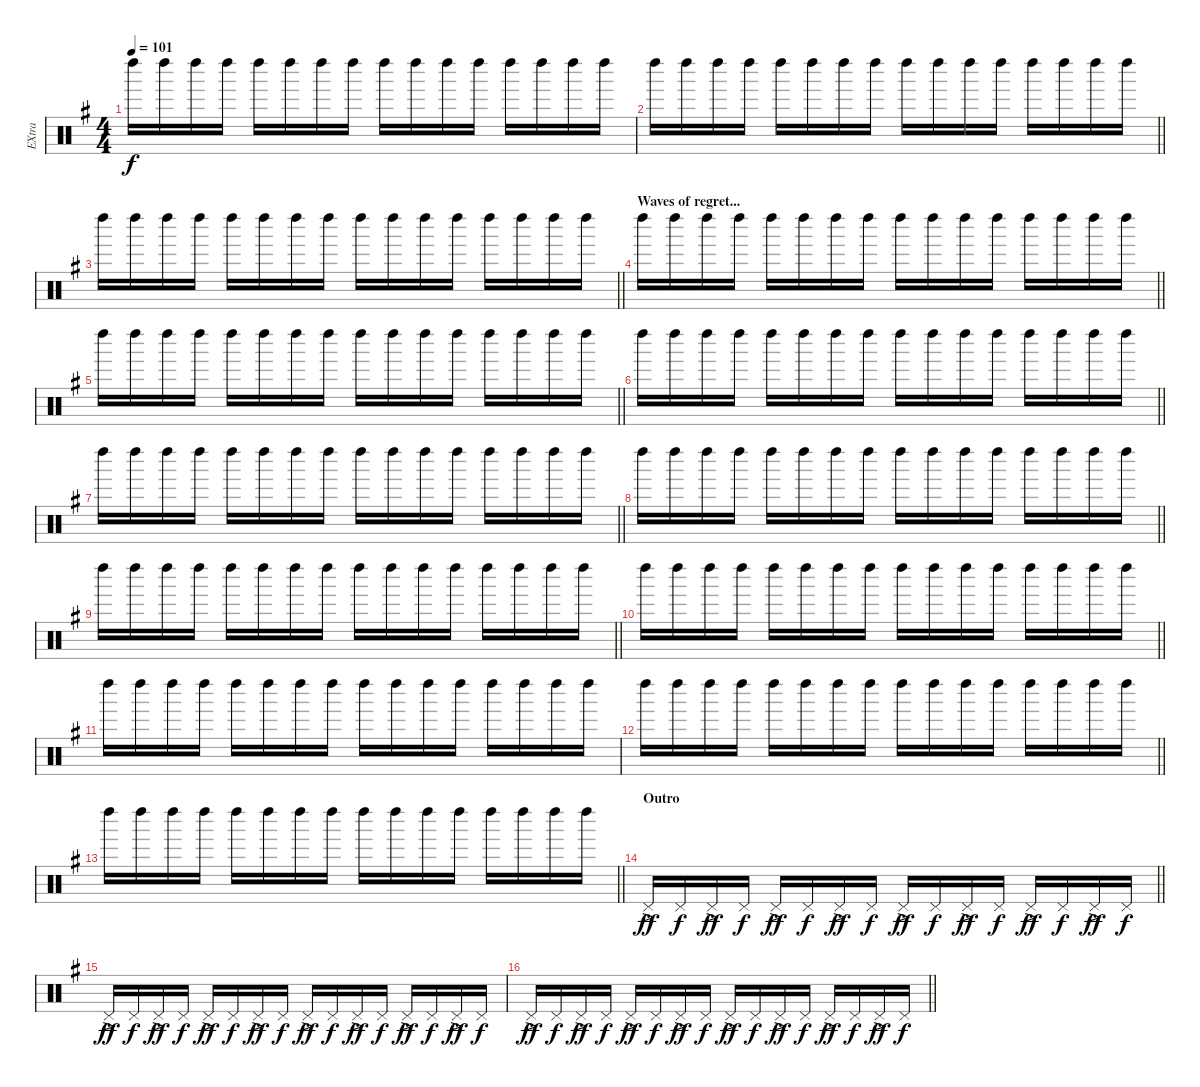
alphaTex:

\track ("EXtra" "EXtra") {instrument percussion}
\staff {score}
\articulation defaults
\ts (4 4)
\tempo 101
\clef neutral
\ks g "Left Maraca (hit)".16{dy f} "Left Maraca (hit)".16 "Left Maraca (hit)".16 "Left Maraca (hit)".16 "Left Maraca (hit)".16 "Left Maraca (hit)".16 "Left Maraca (hit)".16 "Left Maraca (hit)".16 "Left Maraca (hit)".16 "Left Maraca (hit)".16 "Left Maraca (hit)".16 "Left Maraca (hit)".16 "Left Maraca (hit)".16 "Left Maraca (hit)".16 "Left Maraca (hit)".16 "Left Maraca (hit)".16
|
\barLineRight lightlight "Left Maraca (hit)".16 "Left Maraca (hit)".16 "Left Maraca (hit)".16 "Left Maraca (hit)".16 "Left Maraca (hit)".16 "Left Maraca (hit)".16 "Left Maraca (hit)".16 "Left Maraca (hit)".16 "Left Maraca (hit)".16 "Left Maraca (hit)".16 "Left Maraca (hit)".16 "Left Maraca (hit)".16 "Left Maraca (hit)".16 "Left Maraca (hit)".16 "Left Maraca (hit)".16 "Left Maraca (hit)".16
|
\barLineRight lightlight "Left Maraca (hit)".16 "Left Maraca (hit)".16 "Left Maraca (hit)".16 "Left Maraca (hit)".16 "Left Maraca (hit)".16 "Left Maraca (hit)".16 "Left Maraca (hit)".16 "Left Maraca (hit)".16 "Left Maraca (hit)".16 "Left Maraca (hit)".16 "Left Maraca (hit)".16 "Left Maraca (hit)".16 "Left Maraca (hit)".16 "Left Maraca (hit)".16 "Left Maraca (hit)".16 "Left Maraca (hit)".16
|
\section ("" "Waves of regret...")
\barLineRight lightlight "Left Maraca (hit)".16 "Left Maraca (hit)".16 "Left Maraca (hit)".16 "Left Maraca (hit)".16 "Left Maraca (hit)".16 "Left Maraca (hit)".16 "Left Maraca (hit)".16 "Left Maraca (hit)".16 "Left Maraca (hit)".16 "Left Maraca (hit)".16 "Left Maraca (hit)".16 "Left Maraca (hit)".16 "Left Maraca (hit)".16 "Left Maraca (hit)".16 "Left Maraca (hit)".16 "Left Maraca (hit)".16
|
\barLineRight lightlight "Left Maraca (hit)".16 "Left Maraca (hit)".16 "Left Maraca (hit)".16 "Left Maraca (hit)".16 "Left Maraca (hit)".16 "Left Maraca (hit)".16 "Left Maraca (hit)".16 "Left Maraca (hit)".16 "Left Maraca (hit)".16 "Left Maraca (hit)".16 "Left Maraca (hit)".16 "Left Maraca (hit)".16 "Left Maraca (hit)".16 "Left Maraca (hit)".16 "Left Maraca (hit)".16 "Left Maraca (hit)".16
|
\barLineRight lightlight "Left Maraca (hit)".16 "Left Maraca (hit)".16 "Left Maraca (hit)".16 "Left Maraca (hit)".16 "Left Maraca (hit)".16 "Left Maraca (hit)".16 "Left Maraca (hit)".16 "Left Maraca (hit)".16 "Left Maraca (hit)".16 "Left Maraca (hit)".16 "Left Maraca (hit)".16 "Left Maraca (hit)".16 "Left Maraca (hit)".16 "Left Maraca (hit)".16 "Left Maraca (hit)".16 "Left Maraca (hit)".16
|
\section ("" "")
\barLineRight lightlight "Left Maraca (hit)".16 "Left Maraca (hit)".16 "Left Maraca (hit)".16 "Left Maraca (hit)".16 "Left Maraca (hit)".16 "Left Maraca (hit)".16 "Left Maraca (hit)".16 "Left Maraca (hit)".16 "Left Maraca (hit)".16 "Left Maraca (hit)".16 "Left Maraca (hit)".16 "Left Maraca (hit)".16 "Left Maraca (hit)".16 "Left Maraca (hit)".16 "Left Maraca (hit)".16 "Left Maraca (hit)".16
|
\barLineRight lightlight "Left Maraca (hit)".16 "Left Maraca (hit)".16 "Left Maraca (hit)".16 "Left Maraca (hit)".16 "Left Maraca (hit)".16 "Left Maraca (hit)".16 "Left Maraca (hit)".16 "Left Maraca (hit)".16 "Left Maraca (hit)".16 "Left Maraca (hit)".16 "Left Maraca (hit)".16 "Left Maraca (hit)".16 "Left Maraca (hit)".16 "Left Maraca (hit)".16 "Left Maraca (hit)".16 "Left Maraca (hit)".16
|
\barLineRight lightlight "Left Maraca (hit)".16 "Left Maraca (hit)".16 "Left Maraca (hit)".16 "Left Maraca (hit)".16 "Left Maraca (hit)".16 "Left Maraca (hit)".16 "Left Maraca (hit)".16 "Left Maraca (hit)".16 "Left Maraca (hit)".16 "Left Maraca (hit)".16 "Left Maraca (hit)".16 "Left Maraca (hit)".16 "Left Maraca (hit)".16 "Left Maraca (hit)".16 "Left Maraca (hit)".16 "Left Maraca (hit)".16
|
\barLineRight lightlight "Left Maraca (hit)".16 "Left Maraca (hit)".16 "Left Maraca (hit)".16 "Left Maraca (hit)".16 "Left Maraca (hit)".16 "Left Maraca (hit)".16 "Left Maraca (hit)".16 "Left Maraca (hit)".16 "Left Maraca (hit)".16 "Left Maraca (hit)".16 "Left Maraca (hit)".16 "Left Maraca (hit)".16 "Left Maraca (hit)".16 "Left Maraca (hit)".16 "Left Maraca (hit)".16 "Left Maraca (hit)".16
|
"Left Maraca (hit)".16 "Left Maraca (hit)".16 "Left Maraca (hit)".16 "Left Maraca (hit)".16 "Left Maraca (hit)".16 "Left Maraca (hit)".16 "Left Maraca (hit)".16 "Left Maraca (hit)".16 "Left Maraca (hit)".16 "Left Maraca (hit)".16 "Left Maraca (hit)".16 "Left Maraca (hit)".16 "Left Maraca (hit)".16 "Left Maraca (hit)".16 "Left Maraca (hit)".16 "Left Maraca (hit)".16 |
\barLineRight lightlight "Left Maraca (hit)".16 "Left Maraca (hit)".16 "Left Maraca (hit)".16 "Left Maraca (hit)".16 "Left Maraca (hit)".16 "Left Maraca (hit)".16 "Left Maraca (hit)".16 "Left Maraca (hit)".16 "Left Maraca (hit)".16 "Left Maraca (hit)".16 "Left Maraca (hit)".16 "Left Maraca (hit)".16 "Left Maraca (hit)".16 "Left Maraca (hit)".16 "Left Maraca (hit)".16 "Left Maraca (hit)".16
|
\barLineRight lightlight "Left Maraca (hit)".16 "Left Maraca (hit)".16 "Left Maraca (hit)".16 "Left Maraca (hit)".16 "Left Maraca (hit)".16 "Left Maraca (hit)".16 "Left Maraca (hit)".16 "Left Maraca (hit)".16 "Left Maraca (hit)".16 "Left Maraca (hit)".16 "Left Maraca (hit)".16 "Left Maraca (hit)".16 "Left Maraca (hit)".16 "Left Maraca (hit)".16 "Left Maraca (hit)".16 "Left Maraca (hit)".16
|
\section ("" "Outro")
\barLineRight lightlight "Pedal Hi-Hat (hit)"{ac}.16{dy ff} "Pedal Hi-Hat (hit)".16{dy f} "Pedal Hi-Hat (hit)"{ac}.16{dy ff} "Pedal Hi-Hat (hit)".16{dy f} "Pedal Hi-Hat (hit)"{ac}.16{dy ff} "Pedal Hi-Hat (hit)".16{dy f} "Pedal Hi-Hat (hit)"{ac}.16{dy ff} "Pedal Hi-Hat (hit)".16{dy f} "Pedal Hi-Hat (hit)"{ac}.16{dy ff} "Pedal Hi-Hat (hit)".16{dy f} "Pedal Hi-Hat (hit)"{ac}.16{dy ff} "Pedal Hi-Hat (hit)".16{dy f} "Pedal Hi-Hat (hit)"{ac}.16{dy ff} "Pedal Hi-Hat (hit)".16{dy f} "Pedal Hi-Hat (hit)"{ac}.16{dy ff} "Pedal Hi-Hat (hit)".16{dy f}
|
"Pedal Hi-Hat (hit)"{ac}.16{dy ff} "Pedal Hi-Hat (hit)".16{dy f} "Pedal Hi-Hat (hit)"{ac}.16{dy ff} "Pedal Hi-Hat (hit)".16{dy f} "Pedal Hi-Hat (hit)"{ac}.16{dy ff} "Pedal Hi-Hat (hit)".16{dy f} "Pedal Hi-Hat (hit)"{ac}.16{dy ff} "Pedal Hi-Hat (hit)".16{dy f} "Pedal Hi-Hat (hit)"{ac}.16{dy ff} "Pedal Hi-Hat (hit)".16{dy f} "Pedal Hi-Hat (hit)"{ac}.16{dy ff} "Pedal Hi-Hat (hit)".16{dy f} "Pedal Hi-Hat (hit)"{ac}.16{dy ff} "Pedal Hi-Hat (hit)".16{dy f} "Pedal Hi-Hat (hit)"{ac}.16{dy ff} "Pedal Hi-Hat (hit)".16{dy f} |
\barLineRight lightlight "Pedal Hi-Hat (hit)"{ac}.16{dy ff} "Pedal Hi-Hat (hit)".16{dy f} "Pedal Hi-Hat (hit)"{ac}.16{dy ff} "Pedal Hi-Hat (hit)".16{dy f} "Pedal Hi-Hat (hit)"{ac}.16{dy ff} "Pedal Hi-Hat (hit)".16{dy f} "Pedal Hi-Hat (hit)"{ac}.16{dy ff} "Pedal Hi-Hat (hit)".16{dy f} "Pedal Hi-Hat (hit)"{ac}.16{dy ff} "Pedal Hi-Hat (hit)".16{dy f} "Pedal Hi-Hat (hit)"{ac}.16{dy ff} "Pedal Hi-Hat (hit)".16{dy f} "Pedal Hi-Hat (hit)"{ac}.16{dy ff} "Pedal Hi-Hat (hit)".16{dy f} "Pedal Hi-Hat (hit)"{ac}.16{dy ff} "Pedal Hi-Hat (hit)".16{dy f}
